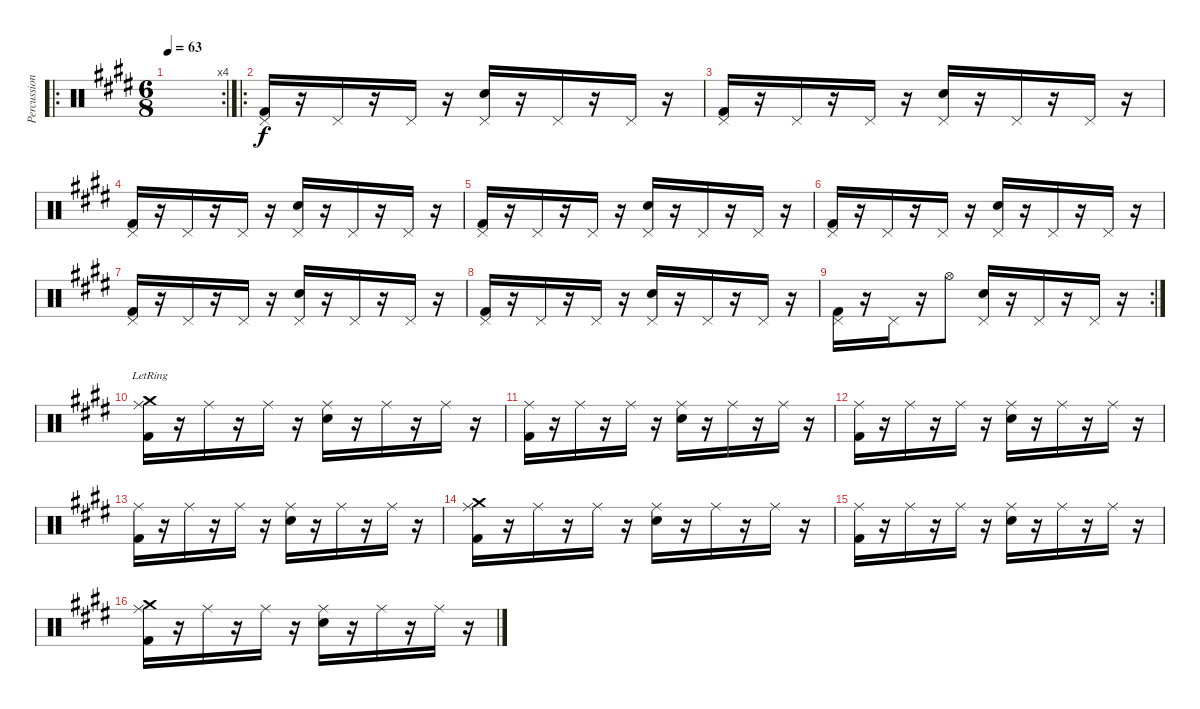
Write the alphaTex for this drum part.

\track ("Percussion" "Percussion") {instrument percussion}
\staff {score}
\articulation defaults
\ro
\rc 4
\ts (6 8)
\tempo 63
\clef neutral
\ks e
|
\ro
("Pedal Hi-Hat (hit)" "Kick (hit) 2").16 r.16 "Pedal Hi-Hat (hit)".16 r.16 "Pedal Hi-Hat (hit)".16 r.16 ("Pedal Hi-Hat (hit)" "Electric Snare (hit)").16 r.16 "Pedal Hi-Hat (hit)".16 r.16 "Pedal Hi-Hat (hit)".16 r.16 |
("Pedal Hi-Hat (hit)" "Kick (hit) 2").16 r.16 "Pedal Hi-Hat (hit)".16 r.16 "Pedal Hi-Hat (hit)".16 r.16 ("Pedal Hi-Hat (hit)" "Electric Snare (hit)").16 r.16 "Pedal Hi-Hat (hit)".16 r.16 "Pedal Hi-Hat (hit)".16 r.16 |
("Pedal Hi-Hat (hit)" "Kick (hit) 2").16 r.16 "Pedal Hi-Hat (hit)".16 r.16 "Pedal Hi-Hat (hit)".16 r.16 ("Pedal Hi-Hat (hit)" "Electric Snare (hit)").16 r.16 "Pedal Hi-Hat (hit)".16 r.16 "Pedal Hi-Hat (hit)".16 r.16 |
("Pedal Hi-Hat (hit)" "Kick (hit) 2").16 r.16 "Pedal Hi-Hat (hit)".16 r.16 "Pedal Hi-Hat (hit)".16 r.16 ("Pedal Hi-Hat (hit)" "Electric Snare (hit)").16 r.16 "Pedal Hi-Hat (hit)".16 r.16 "Pedal Hi-Hat (hit)".16 r.16 |
("Pedal Hi-Hat (hit)" "Kick (hit) 2").16 r.16 "Pedal Hi-Hat (hit)".16 r.16 "Pedal Hi-Hat (hit)".16 r.16 ("Pedal Hi-Hat (hit)" "Electric Snare (hit)").16 r.16 "Pedal Hi-Hat (hit)".16 r.16 "Pedal Hi-Hat (hit)".16 r.16 |
("Pedal Hi-Hat (hit)" "Kick (hit) 2").16 r.16 "Pedal Hi-Hat (hit)".16 r.16 "Pedal Hi-Hat (hit)".16 r.16 ("Pedal Hi-Hat (hit)" "Electric Snare (hit)").16 r.16 "Pedal Hi-Hat (hit)".16 r.16 "Pedal Hi-Hat (hit)".16 r.16 |
("Pedal Hi-Hat (hit)" "Kick (hit) 2").16 r.16 "Pedal Hi-Hat (hit)".16 r.16 "Pedal Hi-Hat (hit)".16 r.16 ("Pedal Hi-Hat (hit)" "Electric Snare (hit)").16 r.16 "Pedal Hi-Hat (hit)".16 r.16 "Pedal Hi-Hat (hit)".16 r.16 |
\rc 2
("Pedal Hi-Hat (hit)" "Kick (hit) 2").16 r.16 "Pedal Hi-Hat (hit)".16 r.16 "Hi-Hat (open)".8 ("Pedal Hi-Hat (hit)" "Electric Snare (hit)").16 r.16 "Pedal Hi-Hat (hit)".16 r.16 "Pedal Hi-Hat (hit)".16 r.16 |
("Crash medium (hit)"{lr} "Ride (middle)" "Kick (hit) 2").16 r.16 "Ride (middle)".16 r.16 "Ride (middle)".16 r.16 ("Ride (middle)" "Electric Snare (hit)").16 r.16 "Ride (middle)".16 r.16 "Ride (middle)".16 r.16 |
("Ride (middle)" "Kick (hit) 2").16 r.16 "Ride (middle)".16 r.16 "Ride (middle)".16 r.16 ("Ride (middle)" "Electric Snare (hit)").16 r.16 "Ride (middle)".16 r.16 "Ride (middle)".16 r.16 |
("Ride (middle)" "Kick (hit) 2").16 r.16 "Ride (middle)".16 r.16 "Ride (middle)".16 r.16 ("Ride (middle)" "Electric Snare (hit)").16 r.16 "Ride (middle)".16 r.16 "Ride (middle)".16 r.16 |
("Ride (middle)" "Kick (hit) 2").16 r.16 "Ride (middle)".16 r.16 "Ride (middle)".16 r.16 ("Ride (middle)" "Electric Snare (hit)").16 r.16 "Ride (middle)".16 r.16 "Ride (middle)".16 r.16 |
("Crash medium (hit)" "Ride (middle)" "Kick (hit) 2").16 r.16 "Ride (middle)".16 r.16 "Ride (middle)".16 r.16 ("Ride (middle)" "Electric Snare (hit)").16 r.16 "Ride (middle)".16 r.16 "Ride (middle)".16 r.16 |
("Ride (middle)" "Kick (hit) 2").16 r.16 "Ride (middle)".16 r.16 "Ride (middle)".16 r.16 ("Ride (middle)" "Electric Snare (hit)").16 r.16 "Ride (middle)".16 r.16 "Ride (middle)".16 r.16 |
("Crash medium (hit)" "Ride (middle)" "Kick (hit) 2").16 r.16 "Ride (middle)".16 r.16 "Ride (middle)".16 r.16 ("Ride (middle)" "Electric Snare (hit)").16 r.16 "Ride (middle)".16 r.16 "Ride (middle)".16 r.16
